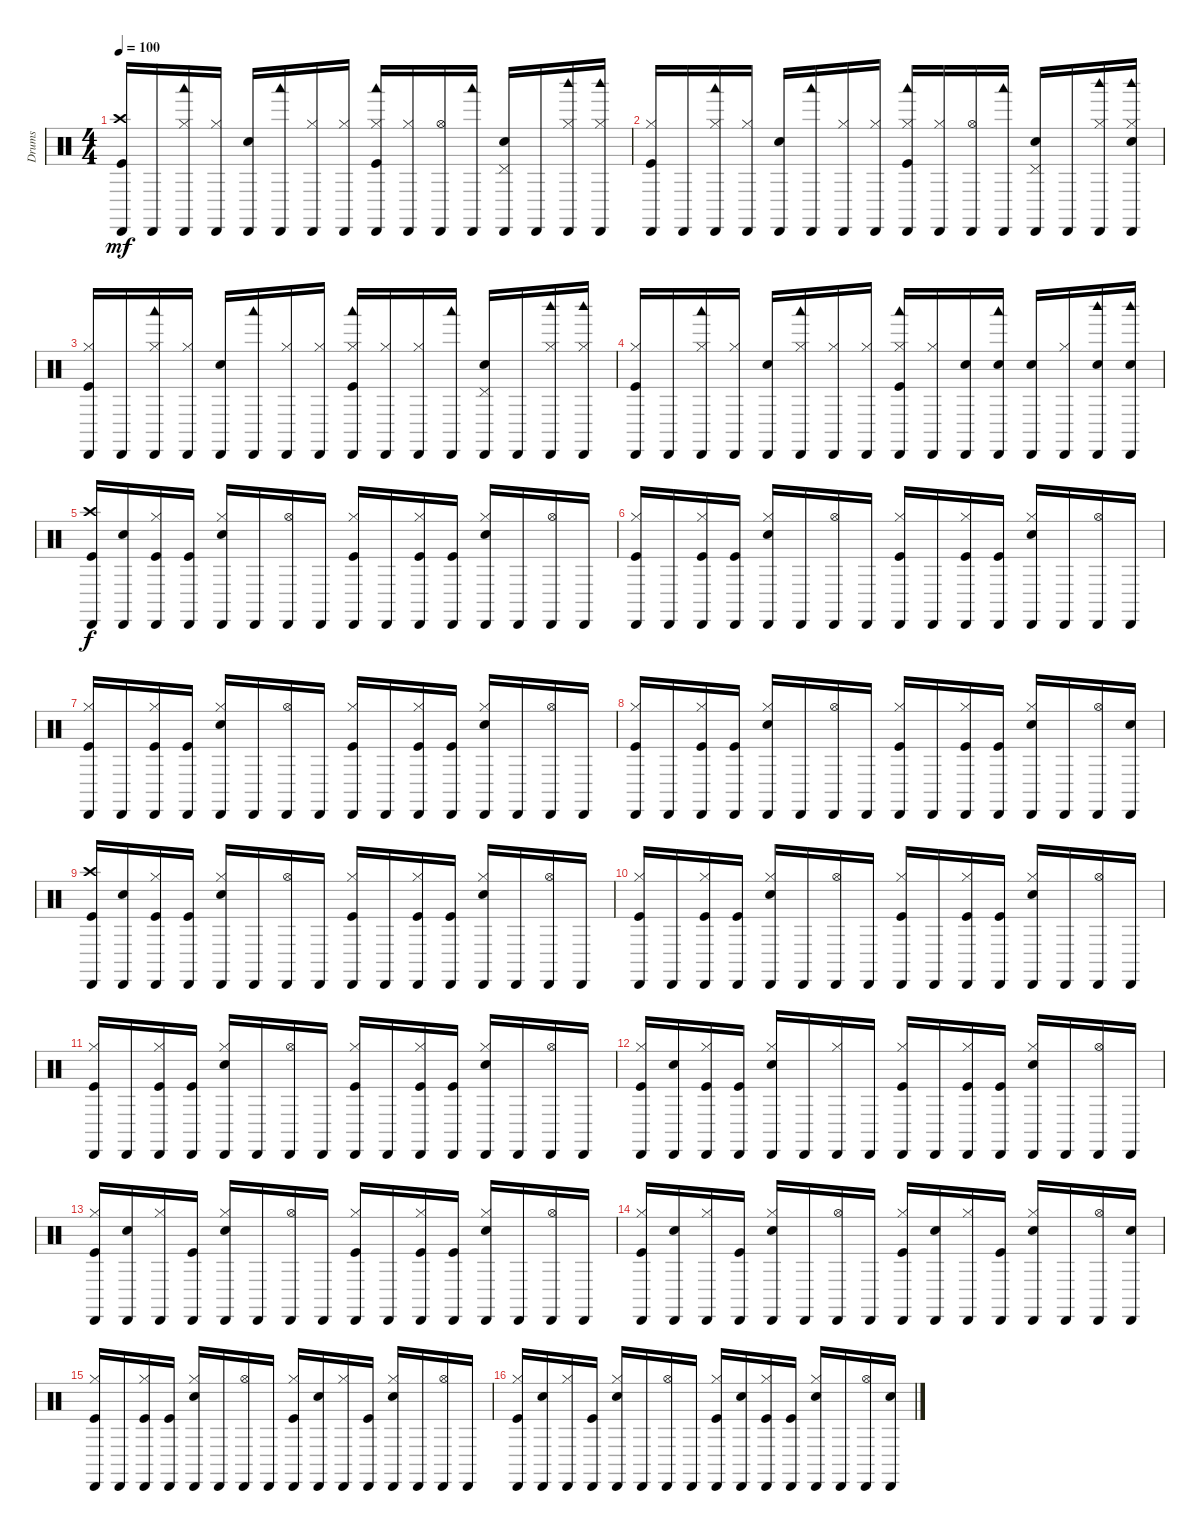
\track ("Drums" "Drums") {instrument percussion}
\staff {score}
\articulation defaults
\ts (4 4)
\tempo 100
\clef neutral
\ks c
("Kick (hit)" "Crash high (hit)" "Cabasa (hit)").16{dy mf} "Cabasa (hit)".16 ("Hi-Hat (closed)" "Woodblock low (hit)" "Cabasa (hit)").16 ("Hi-Hat (closed)" "Cabasa (hit)").16 ("Snare (hit) 2" "Cabasa (hit)").16 ("Woodblock low (hit)" "Cabasa (hit)").16 ("Hi-Hat (closed)" "Cabasa (hit)").16 ("Hi-Hat (closed)" "Cabasa (hit)").16 ("Kick (hit)" "Hi-Hat (closed)" "Woodblock low (hit)" "Cabasa (hit)").16 ("Hi-Hat (closed)" "Cabasa (hit)").16 ("Hi-Hat (open)" "Cabasa (hit)").16 ("Woodblock low (hit)" "Cabasa (hit)").16 ("Snare (hit) 2" "Pedal Hi-Hat (hit)" "Cabasa (hit)").16 "Cabasa (hit)".16 ("Hi-Hat (closed)" "Woodblock high (hit)" "Cabasa (hit)").16 ("Hi-Hat (closed)" "Woodblock high (hit)" "Cabasa (hit)").16 |
("Kick (hit)" "Hi-Hat (closed)" "Cabasa (hit)").16 "Cabasa (hit)".16 ("Hi-Hat (closed)" "Woodblock low (hit)" "Cabasa (hit)").16 ("Hi-Hat (closed)" "Cabasa (hit)").16 ("Snare (hit) 2" "Cabasa (hit)").16 ("Woodblock low (hit)" "Cabasa (hit)").16 ("Hi-Hat (closed)" "Cabasa (hit)").16 ("Hi-Hat (closed)" "Cabasa (hit)").16 ("Kick (hit)" "Hi-Hat (closed)" "Woodblock low (hit)" "Cabasa (hit)").16 ("Hi-Hat (closed)" "Cabasa (hit)").16 ("Hi-Hat (open)" "Cabasa (hit)").16 ("Woodblock low (hit)" "Cabasa (hit)").16 ("Snare (hit) 2" "Pedal Hi-Hat (hit)" "Cabasa (hit)").16 "Cabasa (hit)".16 ("Hi-Hat (closed)" "Woodblock high (hit)" "Cabasa (hit)").16 ("Snare (hit) 2" "Hi-Hat (closed)" "Woodblock high (hit)" "Cabasa (hit)").16 |
("Kick (hit)" "Hi-Hat (closed)" "Cabasa (hit)").16 "Cabasa (hit)".16 ("Hi-Hat (closed)" "Woodblock low (hit)" "Cabasa (hit)").16 ("Hi-Hat (closed)" "Cabasa (hit)").16 ("Snare (hit) 2" "Cabasa (hit)").16 ("Woodblock low (hit)" "Cabasa (hit)").16 ("Hi-Hat (closed)" "Cabasa (hit)").16 ("Hi-Hat (closed)" "Cabasa (hit)").16 ("Kick (hit)" "Hi-Hat (closed)" "Woodblock low (hit)" "Cabasa (hit)").16 ("Hi-Hat (closed)" "Cabasa (hit)").16 ("Hi-Hat (closed)" "Cabasa (hit)").16 ("Woodblock low (hit)" "Cabasa (hit)").16 ("Snare (hit) 2" "Pedal Hi-Hat (hit)" "Cabasa (hit)").16 "Cabasa (hit)".16 ("Hi-Hat (closed)" "Woodblock high (hit)" "Cabasa (hit)").16 ("Hi-Hat (closed)" "Woodblock high (hit)" "Cabasa (hit)").16 |
("Kick (hit)" "Hi-Hat (closed)" "Cabasa (hit)").16 "Cabasa (hit)".16 ("Hi-Hat (closed)" "Woodblock low (hit)" "Cabasa (hit)").16 ("Hi-Hat (closed)" "Cabasa (hit)").16 ("Snare (hit) 2" "Cabasa (hit)").16 ("Hi-Hat (closed)" "Woodblock low (hit)" "Cabasa (hit)").16 ("Hi-Hat (closed)" "Cabasa (hit)").16 ("Hi-Hat (closed)" "Cabasa (hit)").16 ("Kick (hit)" "Hi-Hat (closed)" "Woodblock low (hit)" "Cabasa (hit)").16 ("Hi-Hat (closed)" "Cabasa (hit)").16 ("Snare (hit) 2" "Cabasa (hit)").16 ("Snare (hit) 2" "Woodblock low (hit)" "Cabasa (hit)").16 ("Snare (hit) 2" "Cabasa (hit)").16 ("Hi-Hat (closed)" "Cabasa (hit)").16 ("Snare (hit) 2" "Woodblock high (hit)" "Cabasa (hit)").16 ("Snare (hit) 2" "Woodblock high (hit)" "Cabasa (hit)").16 |
("Crash high (hit)" "Kick (hit)" "Cabasa (hit)").16{dy f} ("Snare (hit) 2" "Cabasa (hit)").16 ("Hi-Hat (closed)" "Kick (hit)" "Cabasa (hit)").16 ("Kick (hit)" "Cabasa (hit)").16 ("Hi-Hat (closed)" "Snare (hit) 2" "Cabasa (hit)").16 "Cabasa (hit)".16 ("Hi-Hat (open)" "Cabasa (hit)").16 "Cabasa (hit)".16 ("Hi-Hat (closed)" "Kick (hit)" "Cabasa (hit)").16 "Cabasa (hit)".16 ("Hi-Hat (closed)" "Kick (hit)" "Cabasa (hit)").16 ("Kick (hit)" "Cabasa (hit)").16 ("Hi-Hat (closed)" "Snare (hit) 2" "Cabasa (hit)").16 "Cabasa (hit)".16 ("Hi-Hat (open)" "Cabasa (hit)").16 "Cabasa (hit)".16 |
("Hi-Hat (closed)" "Kick (hit)" "Cabasa (hit)").16 "Cabasa (hit)".16 ("Hi-Hat (closed)" "Kick (hit)" "Cabasa (hit)").16 ("Kick (hit)" "Cabasa (hit)").16 ("Hi-Hat (closed)" "Snare (hit) 2" "Cabasa (hit)").16 "Cabasa (hit)".16 ("Hi-Hat (open)" "Cabasa (hit)").16 "Cabasa (hit)".16 ("Hi-Hat (closed)" "Kick (hit)" "Cabasa (hit)").16 "Cabasa (hit)".16 ("Hi-Hat (closed)" "Kick (hit)" "Cabasa (hit)").16 ("Kick (hit)" "Cabasa (hit)").16 ("Hi-Hat (closed)" "Snare (hit) 2" "Cabasa (hit)").16 "Cabasa (hit)".16 ("Hi-Hat (open)" "Cabasa (hit)").16 "Cabasa (hit)".16 |
("Hi-Hat (closed)" "Kick (hit)" "Cabasa (hit)").16 "Cabasa (hit)".16 ("Hi-Hat (closed)" "Kick (hit)" "Cabasa (hit)").16 ("Kick (hit)" "Cabasa (hit)").16 ("Hi-Hat (closed)" "Snare (hit) 2" "Cabasa (hit)").16 "Cabasa (hit)".16 ("Hi-Hat (open)" "Cabasa (hit)").16 "Cabasa (hit)".16 ("Hi-Hat (closed)" "Kick (hit)" "Cabasa (hit)").16 "Cabasa (hit)".16 ("Hi-Hat (closed)" "Kick (hit)" "Cabasa (hit)").16 ("Kick (hit)" "Cabasa (hit)").16 ("Hi-Hat (closed)" "Snare (hit) 2" "Cabasa (hit)").16 "Cabasa (hit)".16 ("Hi-Hat (open)" "Cabasa (hit)").16 "Cabasa (hit)".16 |
("Hi-Hat (closed)" "Kick (hit)" "Cabasa (hit)").16 "Cabasa (hit)".16 ("Hi-Hat (closed)" "Kick (hit)" "Cabasa (hit)").16 ("Kick (hit)" "Cabasa (hit)").16 ("Hi-Hat (closed)" "Snare (hit) 2" "Cabasa (hit)").16 "Cabasa (hit)".16 ("Hi-Hat (open)" "Cabasa (hit)").16 "Cabasa (hit)".16 ("Hi-Hat (closed)" "Kick (hit)" "Cabasa (hit)").16 "Cabasa (hit)".16 ("Hi-Hat (closed)" "Kick (hit)" "Cabasa (hit)").16 ("Kick (hit)" "Cabasa (hit)").16 ("Hi-Hat (closed)" "Snare (hit) 2" "Cabasa (hit)").16 "Cabasa (hit)".16 ("Hi-Hat (open)" "Cabasa (hit)").16 ("Snare (hit) 2" "Cabasa (hit)").16 |
("Crash high (hit)" "Kick (hit)" "Cabasa (hit)").16 ("Snare (hit) 2" "Cabasa (hit)").16 ("Hi-Hat (closed)" "Kick (hit)" "Cabasa (hit)").16 ("Kick (hit)" "Cabasa (hit)").16 ("Hi-Hat (closed)" "Snare (hit) 2" "Cabasa (hit)").16 "Cabasa (hit)".16 ("Hi-Hat (open)" "Cabasa (hit)").16 "Cabasa (hit)".16 ("Hi-Hat (closed)" "Kick (hit)" "Cabasa (hit)").16 "Cabasa (hit)".16 ("Hi-Hat (closed)" "Kick (hit)" "Cabasa (hit)").16 ("Kick (hit)" "Cabasa (hit)").16 ("Hi-Hat (closed)" "Snare (hit) 2" "Cabasa (hit)").16 "Cabasa (hit)".16 ("Hi-Hat (open)" "Cabasa (hit)").16 "Cabasa (hit)".16 |
("Hi-Hat (closed)" "Kick (hit)" "Cabasa (hit)").16 "Cabasa (hit)".16 ("Hi-Hat (closed)" "Kick (hit)" "Cabasa (hit)").16 ("Kick (hit)" "Cabasa (hit)").16 ("Hi-Hat (closed)" "Snare (hit) 2" "Cabasa (hit)").16 "Cabasa (hit)".16 ("Hi-Hat (open)" "Cabasa (hit)").16 "Cabasa (hit)".16 ("Hi-Hat (closed)" "Kick (hit)" "Cabasa (hit)").16 "Cabasa (hit)".16 ("Hi-Hat (closed)" "Kick (hit)" "Cabasa (hit)").16 ("Kick (hit)" "Cabasa (hit)").16 ("Hi-Hat (closed)" "Snare (hit) 2" "Cabasa (hit)").16 "Cabasa (hit)".16 ("Hi-Hat (open)" "Cabasa (hit)").16 "Cabasa (hit)".16 |
("Hi-Hat (closed)" "Kick (hit)" "Cabasa (hit)").16 "Cabasa (hit)".16 ("Hi-Hat (closed)" "Kick (hit)" "Cabasa (hit)").16 ("Kick (hit)" "Cabasa (hit)").16 ("Hi-Hat (closed)" "Snare (hit) 2" "Cabasa (hit)").16 "Cabasa (hit)".16 ("Hi-Hat (open)" "Cabasa (hit)").16 "Cabasa (hit)".16 ("Hi-Hat (closed)" "Kick (hit)" "Cabasa (hit)").16 "Cabasa (hit)".16 ("Hi-Hat (closed)" "Kick (hit)" "Cabasa (hit)").16 ("Kick (hit)" "Cabasa (hit)").16 ("Hi-Hat (closed)" "Snare (hit) 2" "Cabasa (hit)").16 "Cabasa (hit)".16 ("Hi-Hat (open)" "Cabasa (hit)").16 "Cabasa (hit)".16 |
("Hi-Hat (closed)" "Kick (hit)" "Cabasa (hit)").16 ("Snare (hit) 2" "Cabasa (hit)").16 ("Hi-Hat (closed)" "Kick (hit)" "Cabasa (hit)").16 ("Kick (hit)" "Cabasa (hit)").16 ("Hi-Hat (closed)" "Snare (hit) 2" "Cabasa (hit)").16 "Cabasa (hit)".16 ("Hi-Hat (closed)" "Cabasa (hit)").16 "Cabasa (hit)".16 ("Hi-Hat (closed)" "Kick (hit)" "Cabasa (hit)").16 "Cabasa (hit)".16 ("Hi-Hat (closed)" "Kick (hit)" "Cabasa (hit)").16 ("Kick (hit)" "Cabasa (hit)").16 ("Hi-Hat (closed)" "Snare (hit) 2" "Cabasa (hit)").16 "Cabasa (hit)".16 ("Hi-Hat (open)" "Cabasa (hit)").16 "Cabasa (hit)".16 |
("Hi-Hat (closed)" "Kick (hit)" "Cabasa (hit)").16 ("Snare (hit) 2" "Cabasa (hit)").16 ("Hi-Hat (closed)" "Cabasa (hit)").16 ("Kick (hit)" "Cabasa (hit)").16 ("Hi-Hat (closed)" "Snare (hit) 2" "Cabasa (hit)").16 "Cabasa (hit)".16 ("Hi-Hat (open)" "Cabasa (hit)").16 "Cabasa (hit)".16 ("Hi-Hat (closed)" "Kick (hit)" "Cabasa (hit)").16 "Cabasa (hit)".16 ("Hi-Hat (closed)" "Kick (hit)" "Cabasa (hit)").16 ("Kick (hit)" "Cabasa (hit)").16 ("Hi-Hat (closed)" "Snare (hit) 2" "Cabasa (hit)").16 "Cabasa (hit)".16 ("Hi-Hat (open)" "Cabasa (hit)").16 "Cabasa (hit)".16 |
("Hi-Hat (closed)" "Kick (hit)" "Cabasa (hit)").16 ("Snare (hit) 2" "Cabasa (hit)").16 ("Hi-Hat (closed)" "Cabasa (hit)").16 ("Kick (hit)" "Cabasa (hit)").16 ("Hi-Hat (closed)" "Snare (hit) 2" "Cabasa (hit)").16 "Cabasa (hit)".16 ("Hi-Hat (open)" "Cabasa (hit)").16 "Cabasa (hit)".16 ("Hi-Hat (closed)" "Kick (hit)" "Cabasa (hit)").16 ("Snare (hit) 2" "Cabasa (hit)").16 ("Hi-Hat (closed)" "Cabasa (hit)").16 ("Kick (hit)" "Cabasa (hit)").16 ("Hi-Hat (closed)" "Snare (hit) 2" "Cabasa (hit)").16 "Cabasa (hit)".16 ("Hi-Hat (open)" "Cabasa (hit)").16 ("Snare (hit) 2" "Cabasa (hit)").16 |
("Hi-Hat (closed)" "Kick (hit)" "Cabasa (hit)").16 "Cabasa (hit)".16 ("Hi-Hat (closed)" "Kick (hit)" "Cabasa (hit)").16 ("Kick (hit)" "Cabasa (hit)").16 ("Hi-Hat (closed)" "Snare (hit) 2" "Cabasa (hit)").16 "Cabasa (hit)".16 ("Hi-Hat (open)" "Cabasa (hit)").16 "Cabasa (hit)".16 ("Hi-Hat (closed)" "Kick (hit)" "Cabasa (hit)").16 ("Snare (hit) 2" "Cabasa (hit)").16 ("Hi-Hat (closed)" "Cabasa (hit)").16 ("Kick (hit)" "Cabasa (hit)").16 ("Hi-Hat (closed)" "Snare (hit) 2" "Cabasa (hit)").16 "Cabasa (hit)".16 ("Hi-Hat (open)" "Cabasa (hit)").16 "Cabasa (hit)".16 |
("Hi-Hat (closed)" "Kick (hit)" "Cabasa (hit)").16 ("Snare (hit) 2" "Cabasa (hit)").16 ("Hi-Hat (closed)" "Cabasa (hit)").16 ("Kick (hit)" "Cabasa (hit)").16 ("Hi-Hat (closed)" "Snare (hit) 2" "Cabasa (hit)").16 "Cabasa (hit)".16 ("Hi-Hat (open)" "Cabasa (hit)").16 "Cabasa (hit)".16 ("Hi-Hat (closed)" "Kick (hit)" "Cabasa (hit)").16 ("Snare (hit) 2" "Cabasa (hit)").16 ("Hi-Hat (closed)" "Kick (hit)" "Cabasa (hit)").16 ("Kick (hit)" "Cabasa (hit)").16 ("Hi-Hat (closed)" "Snare (hit) 2" "Cabasa (hit)").16 "Cabasa (hit)".16 ("Hi-Hat (open)" "Cabasa (hit)").16 ("Snare (hit) 2" "Cabasa (hit)").16
